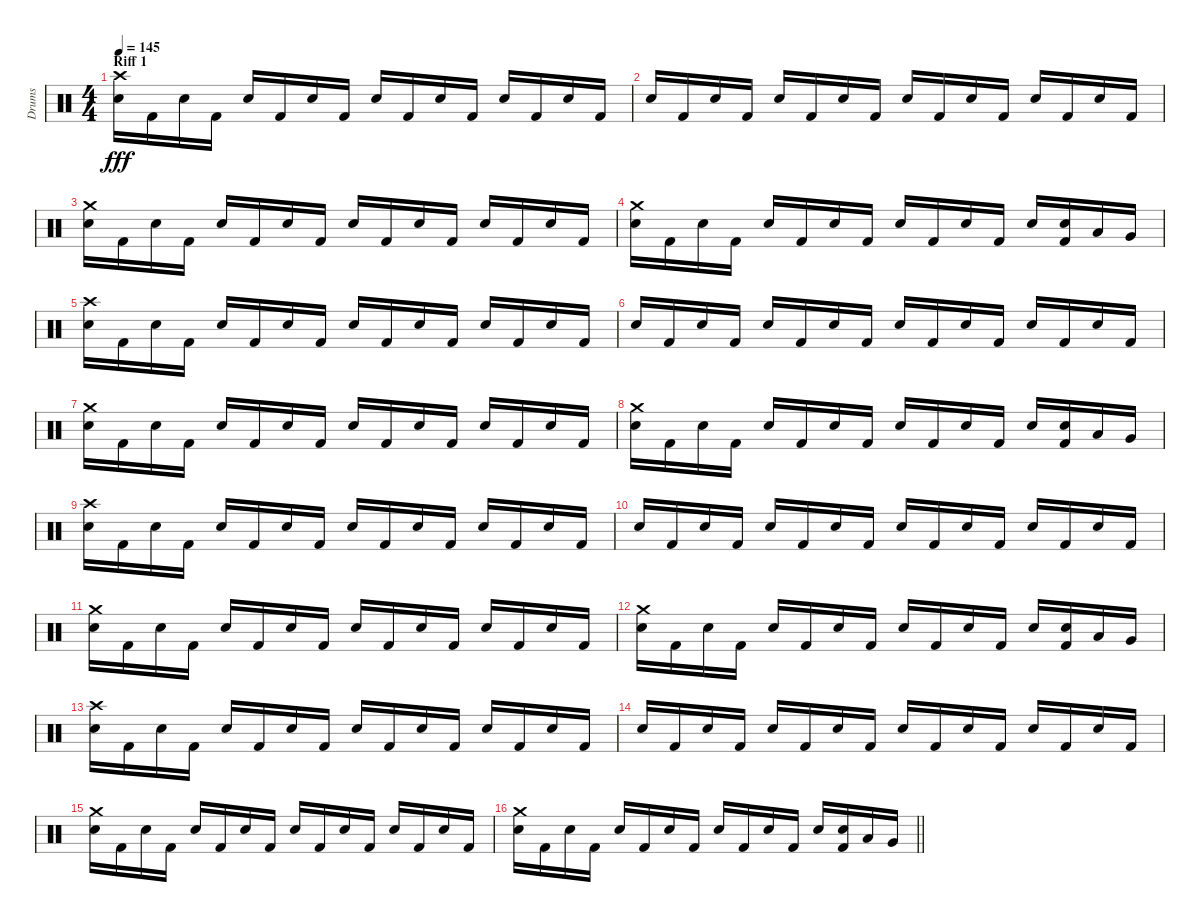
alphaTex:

\track ("Drums" "Drums") {instrument percussion}
\staff {score}
\articulation defaults
\ts (4 4)
\section ("" "Riff 1")
\tempo 145
\clef neutral
\ks c
("Crash high (hit)" "Snare (hit) 2").16{dy fff} "Kick (hit) 2".16 "Snare (hit) 2".16 "Kick (hit) 2".16 "Snare (hit) 2".16 "Kick (hit) 2".16 "Snare (hit) 2".16 "Kick (hit) 2".16 "Snare (hit) 2".16 "Kick (hit) 2".16 "Snare (hit) 2".16 "Kick (hit) 2".16 "Snare (hit) 2".16 "Kick (hit) 2".16 "Snare (hit) 2".16 "Kick (hit) 2".16 |
"Snare (hit) 2".16 "Kick (hit) 2".16 "Snare (hit) 2".16 "Kick (hit) 2".16 "Snare (hit) 2".16 "Kick (hit) 2".16 "Snare (hit) 2".16 "Kick (hit) 2".16 "Snare (hit) 2".16 "Kick (hit) 2".16 "Snare (hit) 2".16 "Kick (hit) 2".16 "Snare (hit) 2".16 "Kick (hit) 2".16 "Snare (hit) 2".16 "Kick (hit) 2".16 |
("Crash medium (hit)" "Snare (hit) 2").16 "Kick (hit) 2".16 "Snare (hit) 2".16 "Kick (hit) 2".16 "Snare (hit) 2".16 "Kick (hit) 2".16 "Snare (hit) 2".16 "Kick (hit) 2".16 "Snare (hit) 2".16 "Kick (hit) 2".16 "Snare (hit) 2".16 "Kick (hit) 2".16 "Snare (hit) 2".16 "Kick (hit) 2".16 "Snare (hit) 2".16 "Kick (hit) 2".16 |
("Crash medium (hit)" "Snare (hit) 2").16 "Kick (hit) 2".16 "Snare (hit) 2".16 "Kick (hit) 2".16 "Snare (hit) 2".16 "Kick (hit) 2".16 "Snare (hit) 2".16 "Kick (hit) 2".16 "Snare (hit) 2".16 "Kick (hit) 2".16 "Snare (hit) 2".16 "Kick (hit) 2".16 "Snare (hit) 2".16 ("Kick (hit) 2" "Snare (hit) 2").16 "Low Tom (hit)".16 "Very Low Tom (hit)".16 |
("Crash high (hit)" "Snare (hit) 2").16 "Kick (hit) 2".16 "Snare (hit) 2".16 "Kick (hit) 2".16 "Snare (hit) 2".16 "Kick (hit) 2".16 "Snare (hit) 2".16 "Kick (hit) 2".16 "Snare (hit) 2".16 "Kick (hit) 2".16 "Snare (hit) 2".16 "Kick (hit) 2".16 "Snare (hit) 2".16 "Kick (hit) 2".16 "Snare (hit) 2".16 "Kick (hit) 2".16 |
"Snare (hit) 2".16 "Kick (hit) 2".16 "Snare (hit) 2".16 "Kick (hit) 2".16 "Snare (hit) 2".16 "Kick (hit) 2".16 "Snare (hit) 2".16 "Kick (hit) 2".16 "Snare (hit) 2".16 "Kick (hit) 2".16 "Snare (hit) 2".16 "Kick (hit) 2".16 "Snare (hit) 2".16 "Kick (hit) 2".16 "Snare (hit) 2".16 "Kick (hit) 2".16 |
("Crash medium (hit)" "Snare (hit) 2").16 "Kick (hit) 2".16 "Snare (hit) 2".16 "Kick (hit) 2".16 "Snare (hit) 2".16 "Kick (hit) 2".16 "Snare (hit) 2".16 "Kick (hit) 2".16 "Snare (hit) 2".16 "Kick (hit) 2".16 "Snare (hit) 2".16 "Kick (hit) 2".16 "Snare (hit) 2".16 "Kick (hit) 2".16 "Snare (hit) 2".16 "Kick (hit) 2".16 |
("Crash medium (hit)" "Snare (hit) 2").16 "Kick (hit) 2".16 "Snare (hit) 2".16 "Kick (hit) 2".16 "Snare (hit) 2".16 "Kick (hit) 2".16 "Snare (hit) 2".16 "Kick (hit) 2".16 "Snare (hit) 2".16 "Kick (hit) 2".16 "Snare (hit) 2".16 "Kick (hit) 2".16 "Snare (hit) 2".16 ("Kick (hit) 2" "Snare (hit) 2").16 "Low Tom (hit)".16 "Very Low Tom (hit)".16 |
("Crash high (hit)" "Snare (hit) 2").16 "Kick (hit) 2".16 "Snare (hit) 2".16 "Kick (hit) 2".16 "Snare (hit) 2".16 "Kick (hit) 2".16 "Snare (hit) 2".16 "Kick (hit) 2".16 "Snare (hit) 2".16 "Kick (hit) 2".16 "Snare (hit) 2".16 "Kick (hit) 2".16 "Snare (hit) 2".16 "Kick (hit) 2".16 "Snare (hit) 2".16 "Kick (hit) 2".16 |
"Snare (hit) 2".16 "Kick (hit) 2".16 "Snare (hit) 2".16 "Kick (hit) 2".16 "Snare (hit) 2".16 "Kick (hit) 2".16 "Snare (hit) 2".16 "Kick (hit) 2".16 "Snare (hit) 2".16 "Kick (hit) 2".16 "Snare (hit) 2".16 "Kick (hit) 2".16 "Snare (hit) 2".16 "Kick (hit) 2".16 "Snare (hit) 2".16 "Kick (hit) 2".16 |
("Crash medium (hit)" "Snare (hit) 2").16 "Kick (hit) 2".16 "Snare (hit) 2".16 "Kick (hit) 2".16 "Snare (hit) 2".16 "Kick (hit) 2".16 "Snare (hit) 2".16 "Kick (hit) 2".16 "Snare (hit) 2".16 "Kick (hit) 2".16 "Snare (hit) 2".16 "Kick (hit) 2".16 "Snare (hit) 2".16 "Kick (hit) 2".16 "Snare (hit) 2".16 "Kick (hit) 2".16 |
("Crash medium (hit)" "Snare (hit) 2").16 "Kick (hit) 2".16 "Snare (hit) 2".16 "Kick (hit) 2".16 "Snare (hit) 2".16 "Kick (hit) 2".16 "Snare (hit) 2".16 "Kick (hit) 2".16 "Snare (hit) 2".16 "Kick (hit) 2".16 "Snare (hit) 2".16 "Kick (hit) 2".16 "Snare (hit) 2".16 ("Kick (hit) 2" "Snare (hit) 2").16 "Low Tom (hit)".16 "Very Low Tom (hit)".16 |
("Crash high (hit)" "Snare (hit) 2").16 "Kick (hit) 2".16 "Snare (hit) 2".16 "Kick (hit) 2".16 "Snare (hit) 2".16 "Kick (hit) 2".16 "Snare (hit) 2".16 "Kick (hit) 2".16 "Snare (hit) 2".16 "Kick (hit) 2".16 "Snare (hit) 2".16 "Kick (hit) 2".16 "Snare (hit) 2".16 "Kick (hit) 2".16 "Snare (hit) 2".16 "Kick (hit) 2".16 |
"Snare (hit) 2".16 "Kick (hit) 2".16 "Snare (hit) 2".16 "Kick (hit) 2".16 "Snare (hit) 2".16 "Kick (hit) 2".16 "Snare (hit) 2".16 "Kick (hit) 2".16 "Snare (hit) 2".16 "Kick (hit) 2".16 "Snare (hit) 2".16 "Kick (hit) 2".16 "Snare (hit) 2".16 "Kick (hit) 2".16 "Snare (hit) 2".16 "Kick (hit) 2".16 |
("Crash medium (hit)" "Snare (hit) 2").16 "Kick (hit) 2".16 "Snare (hit) 2".16 "Kick (hit) 2".16 "Snare (hit) 2".16 "Kick (hit) 2".16 "Snare (hit) 2".16 "Kick (hit) 2".16 "Snare (hit) 2".16 "Kick (hit) 2".16 "Snare (hit) 2".16 "Kick (hit) 2".16 "Snare (hit) 2".16 "Kick (hit) 2".16 "Snare (hit) 2".16 "Kick (hit) 2".16 |
\barLineRight lightlight
("Crash medium (hit)" "Snare (hit) 2").16 "Kick (hit) 2".16 "Snare (hit) 2".16 "Kick (hit) 2".16 "Snare (hit) 2".16 "Kick (hit) 2".16 "Snare (hit) 2".16 "Kick (hit) 2".16 "Snare (hit) 2".16 "Kick (hit) 2".16 "Snare (hit) 2".16 "Kick (hit) 2".16 "Snare (hit) 2".16 ("Kick (hit) 2" "Snare (hit) 2").16 "Low Tom (hit)".16 "Very Low Tom (hit)".16
